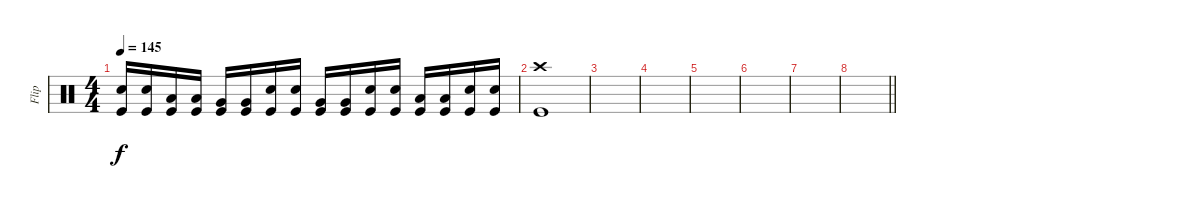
\track ("Flip" "Flip") {instrument percussion}
\staff {score}
\articulation defaults
\ts (4 4)
\tempo 145
\clef neutral
\ks c
("Snare (hit) 2" "Kick (hit)").16{dy f} ("Snare (hit) 2" "Kick (hit)").16 ("Low Tom (hit)" "Kick (hit)").16 ("Low Tom (hit)" "Kick (hit)").16 ("Very Low Tom (hit)" "Kick (hit)").16 ("Very Low Tom (hit)" "Kick (hit)").16 ("Snare (hit) 2" "Kick (hit)").16 ("Snare (hit) 2" "Kick (hit)").16 ("Very Low Tom (hit)" "Kick (hit)").16 ("Very Low Tom (hit)" "Kick (hit)").16 ("Snare (hit) 2" "Kick (hit)").16 ("Snare (hit) 2" "Kick (hit)").16 ("Low Floor Tom (hit)" "Kick (hit)").16 ("Low Floor Tom (hit)" "Kick (hit)").16 ("Snare (hit) 2" "Kick (hit)").16 ("Snare (hit) 2" "Kick (hit)").16 |
("Crash high (hit)" "Kick (hit)").1 |
|
|
|
|
|
\barLineRight lightlight
